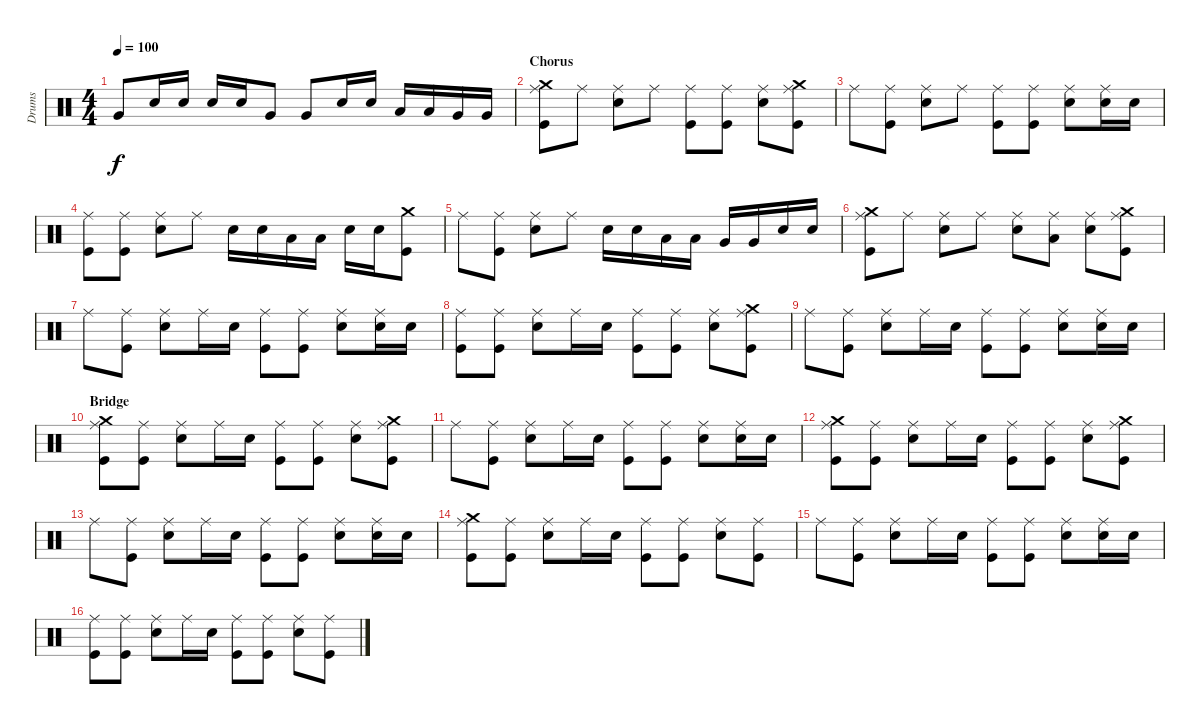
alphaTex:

\track ("Drums" "Drums") {instrument percussion}
\staff {score}
\articulation defaults
\ts (4 4)
\tempo 100
\clef neutral
\ks c "Very Low Tom (hit)".8{dy f} "Snare (hit) 2".16 "Snare (hit) 2".16 "Snare (hit) 2".16 "Snare (hit) 2".16 "Very Low Tom (hit)".8 "Very Low Tom (hit)".8 "Snare (hit) 2".16 "Snare (hit) 2".16 "Low Tom (hit)".16 "Low Tom (hit)".16 "Very Low Tom (hit)".16 "Very Low Tom (hit)".16
|
\section ("" "Chorus")
("Ride (middle)" "Crash medium (hit)" "Kick (hit)").8 "Ride (middle)".8 ("Ride (middle)" "Snare (hit) 2").8 "Ride (middle)".8 ("Ride (middle)" "Kick (hit)").8 ("Ride (middle)" "Kick (hit)").8 ("Ride (middle)" "Snare (hit) 2").8 ("Ride (middle)" "Crash medium (hit)" "Kick (hit)").8 |
"Ride (middle)".8 ("Ride (middle)" "Kick (hit)").8 ("Ride (middle)" "Snare (hit) 2").8 "Ride (middle)".8 ("Ride (middle)" "Kick (hit)").8 ("Ride (middle)" "Kick (hit)").8 ("Ride (middle)" "Snare (hit) 2").8 ("Ride (middle)" "Snare (hit) 2").16 "Snare (hit) 2".16 |
("Ride (middle)" "Kick (hit)").8 ("Ride (middle)" "Kick (hit)").8 ("Ride (middle)" "Snare (hit) 2").8 "Ride (middle)".8 "Snare (hit) 2".16 "Snare (hit) 2".16 "Low Tom (hit)".16 "Low Tom (hit)".16 "Snare (hit) 2".16 "Snare (hit) 2".16 ("Crash medium (hit)" "Kick (hit)").8 |
"Ride (middle)".8 ("Ride (middle)" "Kick (hit)").8 ("Ride (middle)" "Snare (hit) 2").8 "Ride (middle)".8 "Snare (hit) 2".16 "Snare (hit) 2".16 "Low Tom (hit)".16 "Low Tom (hit)".16 "Very Low Tom (hit)".16 "Very Low Tom (hit)".16 "Snare (hit) 2".16 "Snare (hit) 2".16 |
("Ride (middle)" "Crash medium (hit)" "Kick (hit)").8 "Ride (middle)".8 ("Ride (middle)" "Snare (hit) 2").8 "Ride (middle)".8 ("Ride (middle)" "Snare (hit) 2").8 ("Ride (middle)" "Low Tom (hit)").8 ("Ride (middle)" "Snare (hit) 2").8 ("Ride (middle)" "Crash medium (hit)" "Kick (hit)").8 |
"Ride (middle)".8 ("Ride (middle)" "Kick (hit)").8 ("Ride (middle)" "Snare (hit) 2").8 "Ride (middle)".16 "Snare (hit) 2".16 ("Ride (middle)" "Kick (hit)").8 ("Ride (middle)" "Kick (hit)").8 ("Ride (middle)" "Snare (hit) 2").8 ("Ride (middle)" "Snare (hit) 2").16 "Snare (hit) 2".16 |
("Ride (middle)" "Kick (hit)").8 ("Ride (middle)" "Kick (hit)").8 ("Ride (middle)" "Snare (hit) 2").8 "Ride (middle)".16 "Snare (hit) 2".16 ("Ride (middle)" "Kick (hit)").8 ("Ride (middle)" "Kick (hit)").8 ("Ride (middle)" "Snare (hit) 2").8 ("Ride (middle)" "Crash medium (hit)" "Kick (hit)").8 |
"Ride (middle)".8 ("Ride (middle)" "Kick (hit)").8 ("Ride (middle)" "Snare (hit) 2").8 "Ride (middle)".16 "Snare (hit) 2".16 ("Ride (middle)" "Kick (hit)").8 ("Ride (middle)" "Kick (hit)").8 ("Ride (middle)" "Snare (hit) 2").8 ("Ride (middle)" "Snare (hit) 2").16 "Snare (hit) 2".16 |
\section ("" "Bridge")
("Ride (middle)" "Crash medium (hit)" "Kick (hit)").8 ("Ride (middle)" "Kick (hit)").8 ("Ride (middle)" "Snare (hit) 2").8 "Ride (middle)".16 "Snare (hit) 2".16 ("Ride (middle)" "Kick (hit)").8 ("Ride (middle)" "Kick (hit)").8 ("Ride (middle)" "Snare (hit) 2").8 ("Ride (middle)" "Crash medium (hit)" "Kick (hit)").8 |
"Ride (middle)".8 ("Ride (middle)" "Kick (hit)").8 ("Ride (middle)" "Snare (hit) 2").8 "Ride (middle)".16 "Snare (hit) 2".16 ("Ride (middle)" "Kick (hit)").8 ("Ride (middle)" "Kick (hit)").8 ("Ride (middle)" "Snare (hit) 2").8 ("Ride (middle)" "Snare (hit) 2").16 "Snare (hit) 2".16 |
("Ride (middle)" "Crash medium (hit)" "Kick (hit)").8 ("Ride (middle)" "Kick (hit)").8 ("Ride (middle)" "Snare (hit) 2").8 "Ride (middle)".16 "Snare (hit) 2".16 ("Ride (middle)" "Kick (hit)").8 ("Ride (middle)" "Kick (hit)").8 ("Ride (middle)" "Snare (hit) 2").8 ("Ride (middle)" "Crash medium (hit)" "Kick (hit)").8 |
"Ride (middle)".8 ("Ride (middle)" "Kick (hit)").8 ("Ride (middle)" "Snare (hit) 2").8 "Ride (middle)".16 "Snare (hit) 2".16 ("Ride (middle)" "Kick (hit)").8 ("Ride (middle)" "Kick (hit)").8 ("Ride (middle)" "Snare (hit) 2").8 ("Ride (middle)" "Snare (hit) 2").16 "Snare (hit) 2".16 |
("Ride (middle)" "Crash medium (hit)" "Kick (hit)").8 ("Ride (middle)" "Kick (hit)").8 ("Ride (middle)" "Snare (hit) 2").8 "Ride (middle)".16 "Snare (hit) 2".16 ("Ride (middle)" "Kick (hit)").8 ("Ride (middle)" "Kick (hit)").8 ("Ride (middle)" "Snare (hit) 2").8 ("Ride (middle)" "Kick (hit)").8 |
"Ride (middle)".8 ("Ride (middle)" "Kick (hit)").8 ("Ride (middle)" "Snare (hit) 2").8 "Ride (middle)".16 "Snare (hit) 2".16 ("Ride (middle)" "Kick (hit)").8 ("Ride (middle)" "Kick (hit)").8 ("Ride (middle)" "Snare (hit) 2").8 ("Ride (middle)" "Snare (hit) 2").16 "Snare (hit) 2".16 |
("Ride (middle)" "Kick (hit)").8 ("Ride (middle)" "Kick (hit)").8 ("Ride (middle)" "Snare (hit) 2").8 "Ride (middle)".16 "Snare (hit) 2".16 ("Ride (middle)" "Kick (hit)").8 ("Ride (middle)" "Kick (hit)").8 ("Ride (middle)" "Snare (hit) 2").8 ("Ride (middle)" "Kick (hit)").8
